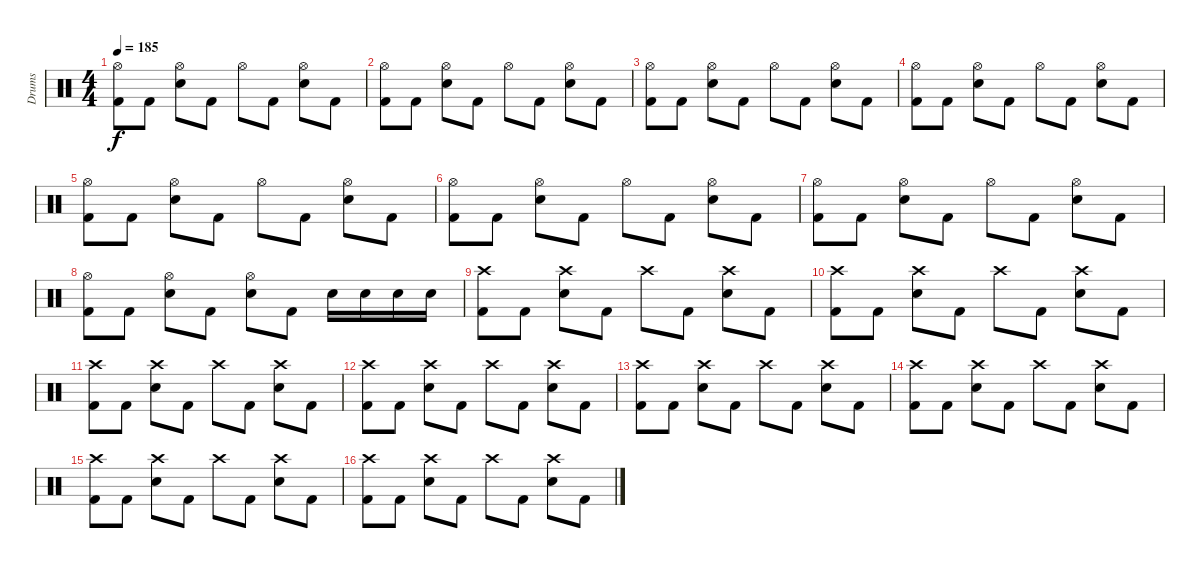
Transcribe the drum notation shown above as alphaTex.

\track ("Drums" "Drums") {instrument percussion}
\staff {score}
\articulation defaults
\ts (4 4)
\tempo 185
\clef neutral
\ks c
("Hi-Hat (open)" "Kick (hit) 2").8{dy f} "Kick (hit) 2".8 ("Hi-Hat (open)" "Snare (hit) 2").8 "Kick (hit) 2".8 "Hi-Hat (open)".8 "Kick (hit) 2".8 ("Hi-Hat (open)" "Snare (hit) 2").8 "Kick (hit) 2".8 |
("Hi-Hat (open)" "Kick (hit) 2").8 "Kick (hit) 2".8 ("Hi-Hat (open)" "Snare (hit) 2").8 "Kick (hit) 2".8 "Hi-Hat (open)".8 "Kick (hit) 2".8 ("Hi-Hat (open)" "Snare (hit) 2").8 "Kick (hit) 2".8 |
("Hi-Hat (open)" "Kick (hit) 2").8 "Kick (hit) 2".8 ("Hi-Hat (open)" "Snare (hit) 2").8 "Kick (hit) 2".8 "Hi-Hat (open)".8 "Kick (hit) 2".8 ("Hi-Hat (open)" "Snare (hit) 2").8 "Kick (hit) 2".8 |
("Hi-Hat (open)" "Kick (hit) 2").8 "Kick (hit) 2".8 ("Hi-Hat (open)" "Snare (hit) 2").8 "Kick (hit) 2".8 "Hi-Hat (open)".8 "Kick (hit) 2".8 ("Hi-Hat (open)" "Snare (hit) 2").8 "Kick (hit) 2".8 |
("Hi-Hat (open)" "Kick (hit) 2").8 "Kick (hit) 2".8 ("Hi-Hat (open)" "Snare (hit) 2").8 "Kick (hit) 2".8 "Hi-Hat (open)".8 "Kick (hit) 2".8 ("Hi-Hat (open)" "Snare (hit) 2").8 "Kick (hit) 2".8 |
("Hi-Hat (open)" "Kick (hit) 2").8 "Kick (hit) 2".8 ("Hi-Hat (open)" "Snare (hit) 2").8 "Kick (hit) 2".8 "Hi-Hat (open)".8 "Kick (hit) 2".8 ("Hi-Hat (open)" "Snare (hit) 2").8 "Kick (hit) 2".8 |
("Hi-Hat (open)" "Kick (hit) 2").8 "Kick (hit) 2".8 ("Hi-Hat (open)" "Snare (hit) 2").8 "Kick (hit) 2".8 "Hi-Hat (open)".8 "Kick (hit) 2".8 ("Hi-Hat (open)" "Snare (hit) 2").8 "Kick (hit) 2".8 |
("Hi-Hat (open)" "Kick (hit) 2").8 "Kick (hit) 2".8 ("Hi-Hat (open)" "Snare (hit) 2").8 "Kick (hit) 2".8 ("Hi-Hat (open)" "Snare (hit) 2").8 "Kick (hit) 2".8 "Snare (hit) 2".16 "Snare (hit) 2".16 "Snare (hit) 2".16 "Snare (hit) 2".16 |
("Crash high (hit)" "Kick (hit) 2").8 "Kick (hit) 2".8 ("Crash high (hit)" "Snare (hit) 2").8 "Kick (hit) 2".8 "Crash high (hit)".8 "Kick (hit) 2".8 ("Crash high (hit)" "Snare (hit) 2").8 "Kick (hit) 2".8 |
("Crash high (hit)" "Kick (hit) 2").8 "Kick (hit) 2".8 ("Crash high (hit)" "Snare (hit) 2").8 "Kick (hit) 2".8 "Crash high (hit)".8 "Kick (hit) 2".8 ("Crash high (hit)" "Snare (hit) 2").8 "Kick (hit) 2".8 |
("Crash high (hit)" "Kick (hit) 2").8 "Kick (hit) 2".8 ("Crash high (hit)" "Snare (hit) 2").8 "Kick (hit) 2".8 "Crash high (hit)".8 "Kick (hit) 2".8 ("Crash high (hit)" "Snare (hit) 2").8 "Kick (hit) 2".8 |
("Crash high (hit)" "Kick (hit) 2").8 "Kick (hit) 2".8 ("Crash high (hit)" "Snare (hit) 2").8 "Kick (hit) 2".8 "Crash high (hit)".8 "Kick (hit) 2".8 ("Crash high (hit)" "Snare (hit) 2").8 "Kick (hit) 2".8 |
("Crash high (hit)" "Kick (hit) 2").8 "Kick (hit) 2".8 ("Crash high (hit)" "Snare (hit) 2").8 "Kick (hit) 2".8 "Crash high (hit)".8 "Kick (hit) 2".8 ("Crash high (hit)" "Snare (hit) 2").8 "Kick (hit) 2".8 |
("Crash high (hit)" "Kick (hit) 2").8 "Kick (hit) 2".8 ("Crash high (hit)" "Snare (hit) 2").8 "Kick (hit) 2".8 "Crash high (hit)".8 "Kick (hit) 2".8 ("Crash high (hit)" "Snare (hit) 2").8 "Kick (hit) 2".8 |
("Crash high (hit)" "Kick (hit) 2").8 "Kick (hit) 2".8 ("Crash high (hit)" "Snare (hit) 2").8 "Kick (hit) 2".8 "Crash high (hit)".8 "Kick (hit) 2".8 ("Crash high (hit)" "Snare (hit) 2").8 "Kick (hit) 2".8 |
("Crash high (hit)" "Kick (hit) 2").8 "Kick (hit) 2".8 ("Crash high (hit)" "Snare (hit) 2").8 "Kick (hit) 2".8 "Crash high (hit)".8 "Kick (hit) 2".8 ("Crash high (hit)" "Snare (hit) 2").8 "Kick (hit) 2".8
